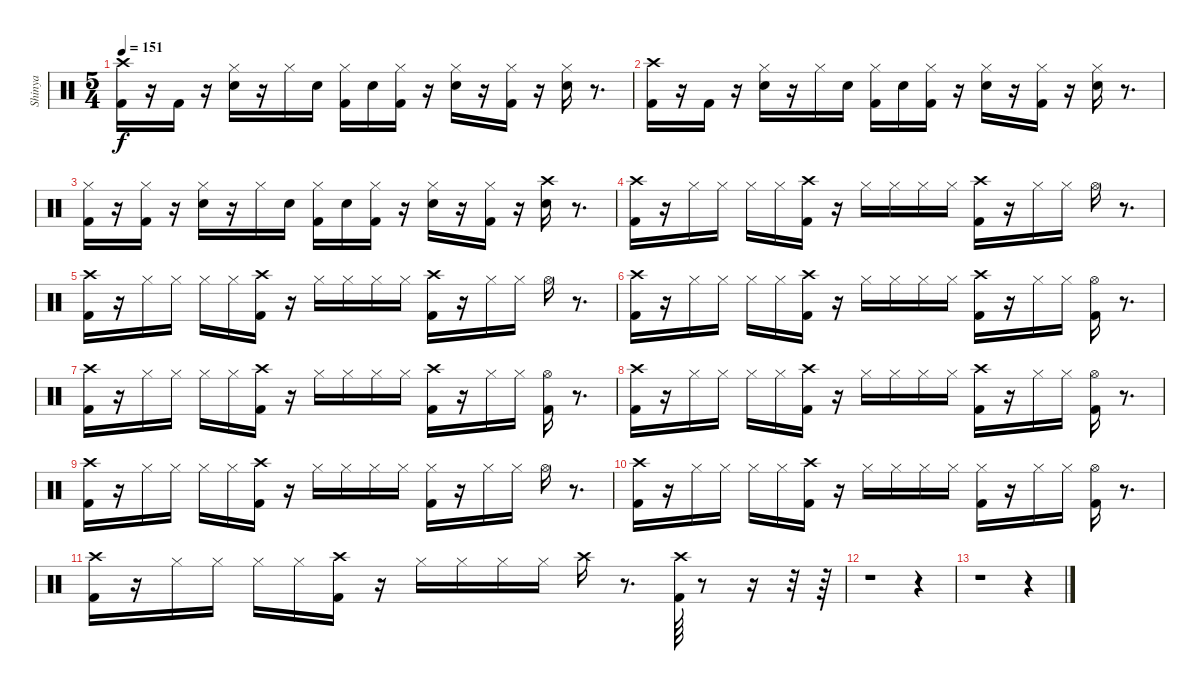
\track ("Shinya" "Shinya") {instrument percussion}
\staff {score}
\articulation defaults
\ts (5 4)
\tempo 151
\clef neutral
\ks c
("Crash high (hit)" "Kick (hit) 2").16{dy f} r.16 "Kick (hit) 2".16 r.16 ("Snare (hit) 2" "Hi-Hat (closed)").16 r.16 "Hi-Hat (closed)".16 "Snare (hit) 2".16 ("Hi-Hat (closed)" "Kick (hit) 2").16 "Snare (hit) 2".16 ("Hi-Hat (closed)" "Kick (hit) 2").16 r.16 ("Snare (hit) 2" "Hi-Hat (closed)").16 r.16 ("Hi-Hat (closed)" "Kick (hit) 2").16 r.16 ("Hi-Hat (closed)" "Snare (hit) 2").16 r.8{d} |
("Crash high (hit)" "Kick (hit) 2").16 r.16 "Kick (hit) 2".16 r.16 ("Snare (hit) 2" "Hi-Hat (closed)").16 r.16 "Hi-Hat (closed)".16 "Snare (hit) 2".16 ("Hi-Hat (closed)" "Kick (hit) 2").16 "Snare (hit) 2".16 ("Hi-Hat (closed)" "Kick (hit) 2").16 r.16 ("Snare (hit) 2" "Hi-Hat (closed)").16 r.16 ("Hi-Hat (closed)" "Kick (hit) 2").16 r.16 ("Hi-Hat (closed)" "Snare (hit) 2").16 r.8{d} |
("Kick (hit) 2" "Hi-Hat (closed)").16 r.16 ("Kick (hit) 2" "Hi-Hat (closed)").16 r.16 ("Snare (hit) 2" "Hi-Hat (closed)").16 r.16 "Hi-Hat (closed)".16 "Snare (hit) 2".16 ("Hi-Hat (closed)" "Kick (hit) 2").16 "Snare (hit) 2".16 ("Hi-Hat (closed)" "Kick (hit) 2").16 r.16 ("Snare (hit) 2" "Hi-Hat (closed)").16 r.16 ("Hi-Hat (closed)" "Kick (hit) 2").16 r.16 ("Crash high (hit)" "Snare (hit) 2").16 r.8{d} |
("Kick (hit) 2" "Crash high (hit)").16 r.16 "Hi-Hat (closed)".16 "Hi-Hat (closed)".16 "Hi-Hat (closed)".16 "Hi-Hat (closed)".16 ("Kick (hit) 2" "Crash high (hit)").16 r.16 "Hi-Hat (closed)".16 "Hi-Hat (closed)".16 "Hi-Hat (closed)".16 "Hi-Hat (closed)".16 ("Kick (hit) 2" "Crash high (hit)").16 r.16 "Hi-Hat (closed)".16 "Hi-Hat (closed)".16 "Hi-Hat (open)".16 r.8{d} |
("Kick (hit) 2" "Crash high (hit)").16 r.16 "Hi-Hat (closed)".16 "Hi-Hat (closed)".16 "Hi-Hat (closed)".16 "Hi-Hat (closed)".16 ("Kick (hit) 2" "Crash high (hit)").16 r.16 "Hi-Hat (closed)".16 "Hi-Hat (closed)".16 "Hi-Hat (closed)".16 "Hi-Hat (closed)".16 ("Kick (hit) 2" "Crash high (hit)").16 r.16 "Hi-Hat (closed)".16 "Hi-Hat (closed)".16 "Hi-Hat (open)".16 r.8{d} |
("Kick (hit) 2" "Crash high (hit)").16 r.16 "Hi-Hat (closed)".16 "Hi-Hat (closed)".16 "Hi-Hat (closed)".16 "Hi-Hat (closed)".16 ("Kick (hit) 2" "Crash high (hit)").16 r.16 "Hi-Hat (closed)".16 "Hi-Hat (closed)".16 "Hi-Hat (closed)".16 "Hi-Hat (closed)".16 ("Kick (hit) 2" "Crash high (hit)").16 r.16 "Hi-Hat (closed)".16 "Hi-Hat (closed)".16 ("Kick (hit) 2" "Hi-Hat (open)").16 r.8{d} |
("Kick (hit) 2" "Crash high (hit)").16 r.16 "Hi-Hat (closed)".16 "Hi-Hat (closed)".16 "Hi-Hat (closed)".16 "Hi-Hat (closed)".16 ("Kick (hit) 2" "Crash high (hit)").16 r.16 "Hi-Hat (closed)".16 "Hi-Hat (closed)".16 "Hi-Hat (closed)".16 "Hi-Hat (closed)".16 ("Kick (hit) 2" "Crash high (hit)").16 r.16 "Hi-Hat (closed)".16 "Hi-Hat (closed)".16 ("Kick (hit) 2" "Hi-Hat (open)").16 r.8{d} |
("Kick (hit) 2" "Crash high (hit)").16 r.16 "Hi-Hat (closed)".16 "Hi-Hat (closed)".16 "Hi-Hat (closed)".16 "Hi-Hat (closed)".16 ("Kick (hit) 2" "Crash high (hit)").16 r.16 "Hi-Hat (closed)".16 "Hi-Hat (closed)".16 "Hi-Hat (closed)".16 "Hi-Hat (closed)".16 ("Kick (hit) 2" "Crash high (hit)").16 r.16 "Hi-Hat (closed)".16 "Hi-Hat (closed)".16 ("Kick (hit) 2" "Hi-Hat (open)").16 r.8{d} |
("Kick (hit) 2" "Crash high (hit)").16 r.16 "Hi-Hat (closed)".16 "Hi-Hat (closed)".16 "Hi-Hat (closed)".16 "Hi-Hat (closed)".16 ("Kick (hit) 2" "Crash high (hit)").16 r.16 "Hi-Hat (closed)".16 "Hi-Hat (closed)".16 "Hi-Hat (closed)".16 "Hi-Hat (closed)".16 ("Kick (hit) 2" "Hi-Hat (closed)").16 r.16 "Hi-Hat (closed)".16 "Hi-Hat (closed)".16 "Hi-Hat (open)".16 r.8{d} |
("Kick (hit) 2" "Crash high (hit)").16 r.16 "Hi-Hat (closed)".16 "Hi-Hat (closed)".16 "Hi-Hat (closed)".16 "Hi-Hat (closed)".16 ("Kick (hit) 2" "Crash high (hit)").16 r.16 "Hi-Hat (closed)".16 "Hi-Hat (closed)".16 "Hi-Hat (closed)".16 "Hi-Hat (closed)".16 ("Kick (hit) 2" "Hi-Hat (closed)").16 r.16 "Hi-Hat (closed)".16 "Hi-Hat (closed)".16 ("Kick (hit) 2" "Hi-Hat (open)").16 r.8{d} |
("Kick (hit) 2" "Crash high (hit)").16 r.16 "Hi-Hat (closed)".16 "Hi-Hat (closed)".16 "Hi-Hat (closed)".16 "Hi-Hat (closed)".16 ("Kick (hit) 2" "Crash high (hit)").16 r.16 "Hi-Hat (closed)".16 "Hi-Hat (closed)".16 "Hi-Hat (closed)".16 "Hi-Hat (closed)".16 "Crash high (hit)".16 r.8{d} ("Kick (hit) 2" "Crash high (hit)").64 r.8 r.16 r.32 r.64 |
r.1 r.4 |
r.1 r.4
